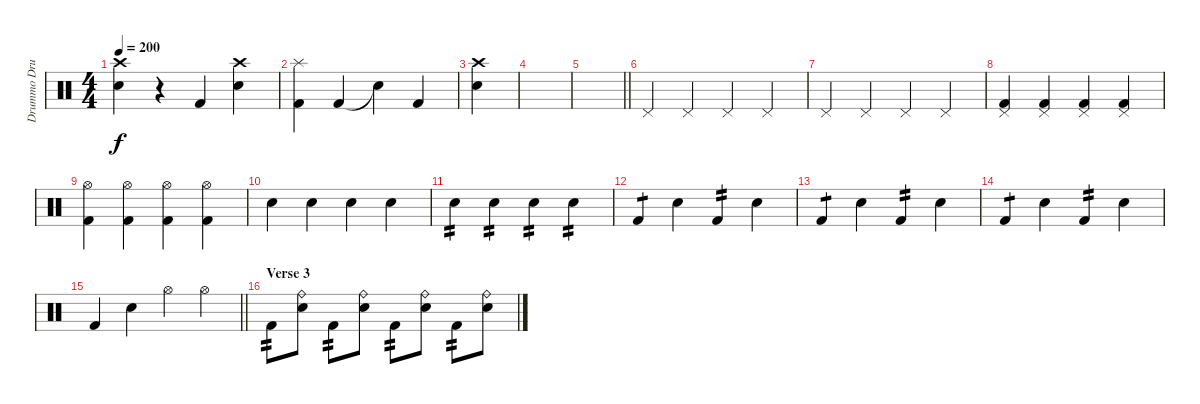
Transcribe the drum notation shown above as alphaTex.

\track ("Drummo Drummer" "Drummo Dru") {instrument percussion}
\staff {score}
\articulation defaults
\ts (4 4)
\tempo 200
\clef neutral
\ks c
("Crash high (hit)" "Electric Snare (hit)").4{dy f} r.4 "Kick (hit) 2".4 ("Crash high (hit)" "Electric Snare (hit)").4 |
("Splash (hit)" "Kick (hit) 2").4 "Kick (hit) 2".4 "Snare (hit)"{t}.4 "Kick (hit) 2".4 |
("Crash high (hit)" "Electric Snare (hit)").4 |
|
\barLineRight lightlight
|
"Pedal Hi-Hat (hit)".4 "Pedal Hi-Hat (hit)".4 "Pedal Hi-Hat (hit)".4 "Pedal Hi-Hat (hit)".4 |
"Pedal Hi-Hat (hit)".4 "Pedal Hi-Hat (hit)".4 "Pedal Hi-Hat (hit)".4 "Pedal Hi-Hat (hit)".4 |
("Pedal Hi-Hat (hit)" "Kick (hit) 2").4 ("Pedal Hi-Hat (hit)" "Kick (hit) 2").4 ("Pedal Hi-Hat (hit)" "Kick (hit) 2").4 ("Pedal Hi-Hat (hit)" "Kick (hit) 2").4 |
("Hi-Hat (open)" "Kick (hit) 2").4 ("Hi-Hat (open)" "Kick (hit) 2").4 ("Hi-Hat (open)" "Kick (hit) 2").4 ("Hi-Hat (open)" "Kick (hit) 2").4 |
"Electric Snare (hit)".4 "Electric Snare (hit)".4 "Electric Snare (hit)".4 "Electric Snare (hit)".4 |
"Electric Snare (hit)".4{tp 2} "Electric Snare (hit)".4{tp 2} "Electric Snare (hit)".4{tp 2} "Electric Snare (hit)".4{tp 2} |
"Kick (hit) 2".4{tp 1} "Electric Snare (hit)".4 "Kick (hit) 2".4{tp 2} "Electric Snare (hit)".4 |
"Kick (hit) 2".4{tp 1} "Electric Snare (hit)".4 "Kick (hit) 2".4{tp 2} "Electric Snare (hit)".4 |
"Kick (hit) 2".4{tp 1} "Electric Snare (hit)".4 "Kick (hit) 2".4{tp 2} "Electric Snare (hit)".4 |
\barLineRight lightlight "Kick (hit) 2".4 "Electric Snare (hit)".4 "Hi-Hat (open)".4 "Hi-Hat (open)".4
|
\section ("" "Verse 3")
"Kick (hit) 2".8{tp 2} ("Ride (bell)" "Electric Snare (hit)").8 "Kick (hit) 2".8{tp 2} ("Ride (bell)" "Electric Snare (hit)").8 "Kick (hit) 2".8{tp 2} ("Ride (bell)" "Electric Snare (hit)").8 "Kick (hit) 2".8{tp 2} ("Ride (bell)" "Electric Snare (hit)").8
